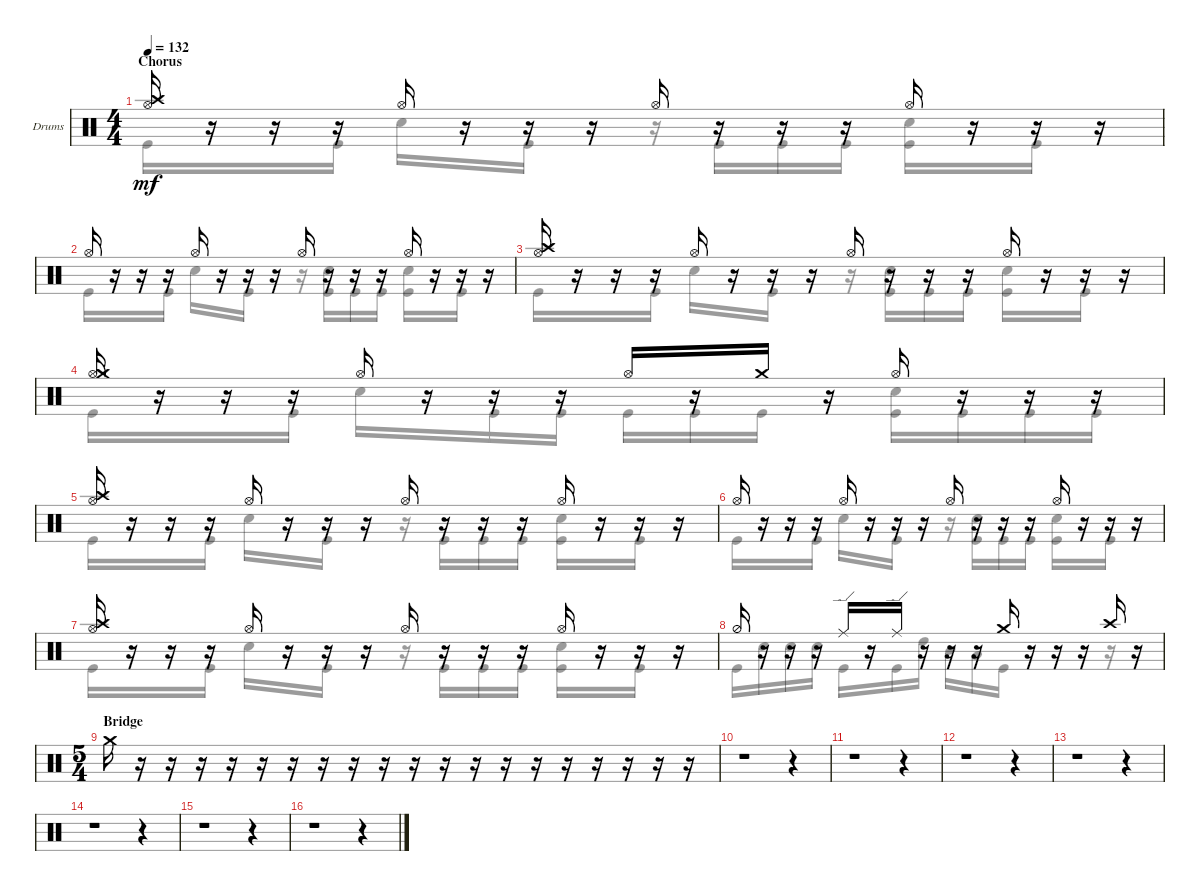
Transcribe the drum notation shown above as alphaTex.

\defaultSystemsLayout 4
\bracketExtendMode groupsimilarinstruments
\firstSystemTrackNameOrientation horizontal
\otherSystemsTrackNameOrientation horizontal
\track ("Drumkit" "Drums") {instrument percussion}
\staff {score}
\articulation defaults
\voice
\ts (4 4)
\section ("" "Chorus")
\tempo 132
\clef neutral
\ks c
("Crash high (hit)" "Hi-Hat (open)").16{dy mf} r.16 r.16 r.16 "Hi-Hat (open)".16 r.16 r.16 r.16 "Hi-Hat (open)".16 r.16 r.16 r.16 "Hi-Hat (open)".16 r.16 r.16 r.16 |
"Hi-Hat (open)".16 r.16 r.16 r.16 "Hi-Hat (open)".16 r.16 r.16 r.16 "Hi-Hat (open)".16 r.16 r.16 r.16 "Hi-Hat (open)".16 r.16 r.16 r.16 |
("Crash high (hit)" "Hi-Hat (open)").16 r.16 r.16 r.16 "Hi-Hat (open)".16 r.16 r.16 r.16 "Hi-Hat (open)".16 r.16 r.16 r.16 "Hi-Hat (open)".16 r.16 r.16 r.16 |
("Hi-Hat (open)" "Crash medium (hit)").16 r.16 r.16 r.16 "Hi-Hat (open)".16 r.16 r.16 r.16 "Hi-Hat (open)".16 r.16 "Crash medium (hit)".16 r.16 "Hi-Hat (open)".16 r.16 r.16 r.16 |
("Crash high (hit)" "Hi-Hat (open)").16 r.16 r.16 r.16 "Hi-Hat (open)".16 r.16 r.16 r.16 "Hi-Hat (open)".16 r.16 r.16 r.16 "Hi-Hat (open)".16 r.16 r.16 r.16 |
"Hi-Hat (open)".16 r.16 r.16 r.16 "Hi-Hat (open)".16 r.16 r.16 r.16 "Hi-Hat (open)".16 r.16 r.16 r.16 "Hi-Hat (open)".16 r.16 r.16 r.16 |
("Crash high (hit)" "Hi-Hat (open)").16 r.16 r.16 r.16 "Hi-Hat (open)".16 r.16 r.16 r.16 "Hi-Hat (open)".16 r.16 r.16 r.16 "Hi-Hat (open)".16 r.16 r.16 r.16 |
"Hi-Hat (half)".16 r.16 r.16 r.16 "Ride (edge)".16 r.16 "Ride (edge)".16 r.16 r.16 r.16 "Crash medium (hit)".16 r.16 r.16 r.16 "Crash high (hit)".16 r.16 |
\ts (5 4)
\section ("" "Bridge")
"Crash medium (hit)".16 r.16 r.16 r.16 r.16 r.16 r.16 r.16 r.16 r.16 r.16 r.16 r.16 r.16 r.16 r.16 r.16 r.16 r.16 r.16 |
r.1 r.4 |
r.1 r.4 |
r.1 r.4 |
r.1 r.4 |
r.1 r.4 |
r.1 r.4 |
r.1 r.4
\voice
\clef neutral
\ottava regular
\simile none
\ks c "Kick (hit)".16{dy mf}
r.16 r.16 "Kick (hit)".16 "Snare (hit) 2".16 r.16 "Kick (hit)".16 r.16 r.16 "Kick (hit)".16 "Kick (hit)".16 "Kick (hit)".16 ("Kick (hit)" "Snare (hit) 2").16 r.16 "Kick (hit)".16 r.16 |
"Kick (hit)".16 r.16 r.16 "Kick (hit)".16 "Snare (hit) 2".16 r.16 "Kick (hit)".16 r.16 r.16 ("Kick (hit)" "Snare (hit) 2").16 "Kick (hit)".16 "Kick (hit)".16 ("Kick (hit)" "Snare (hit) 2").16 r.16 "Kick (hit)".16 r.16 |
"Kick (hit)".16 r.16 r.16 "Kick (hit)".16 "Snare (hit) 2".16 r.16 "Kick (hit)".16 r.16 r.16 ("Kick (hit)" "Snare (hit) 2").16 "Kick (hit)".16 "Kick (hit)".16 ("Kick (hit)" "Snare (hit) 2").16 r.16 "Kick (hit)".16 r.16 |
"Kick (hit)".16 r.16 r.16 "Kick (hit)".16 "Snare (hit) 2".16 r.16 "Kick (hit)".16 "Kick (hit)".16 "Kick (hit)".16 "Kick (hit)".16 "Kick (hit)".16 r.16 ("Snare (hit) 2" "Kick (hit)").16 "Kick (hit)".16 "Kick (hit)".16 "Kick (hit)".16 |
"Kick (hit)".16 r.16 r.16 "Kick (hit)".16 "Snare (hit) 2".16 r.16 "Kick (hit)".16 r.16 r.16 "Kick (hit)".16 "Kick (hit)".16 "Kick (hit)".16 ("Kick (hit)" "Snare (hit) 2").16 r.16 "Kick (hit)".16 r.16 |
"Kick (hit)".16 r.16 r.16 "Kick (hit)".16 "Snare (hit) 2".16 r.16 "Kick (hit)".16 r.16 r.16 ("Kick (hit)" "Snare (hit) 2").16 "Kick (hit)".16 "Kick (hit)".16 ("Kick (hit)" "Snare (hit) 2").16 r.16 "Kick (hit)".16 r.16 |
"Kick (hit)".16 r.16 r.16 "Kick (hit)".16 "Snare (hit) 2".16 r.16 "Kick (hit)".16 r.16 r.16 "Kick (hit)".16 "Kick (hit)".16 "Kick (hit)".16 ("Kick (hit)" "Snare (hit) 2").16 r.16 "Kick (hit)".16 r.16 |
"Kick (hit)".16 "Snare (hit) 2".16 "Snare (hit) 2".16 "Snare (hit) 2".16 "Kick (hit)".16 r.16 "Kick (hit)".16 "High Tom (hit)".16 "Mid Tom (hit)".16 "Low Tom (hit)".16 "Kick (hit)".16 r.16 r.16 r.16 r.16 r.16 |
|
|
|
|
|
|
|
